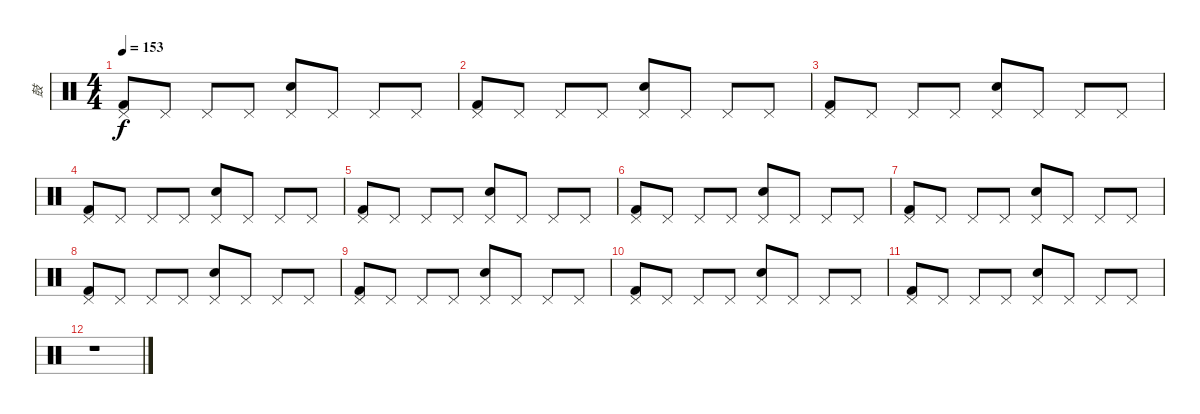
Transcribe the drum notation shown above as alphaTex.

\track ("鼓" "鼓") {instrument percussion}
\staff {score}
\articulation defaults
\ts (4 4)
\tempo 153
\clef neutral
\ks c
("Pedal Hi-Hat (hit)" "Kick (hit) 2").8{dy f} "Pedal Hi-Hat (hit)".8 "Pedal Hi-Hat (hit)".8 "Pedal Hi-Hat (hit)".8 ("Pedal Hi-Hat (hit)" "Electric Snare (hit)").8 "Pedal Hi-Hat (hit)".8 "Pedal Hi-Hat (hit)".8 "Pedal Hi-Hat (hit)".8 |
("Pedal Hi-Hat (hit)" "Kick (hit) 2").8 "Pedal Hi-Hat (hit)".8 "Pedal Hi-Hat (hit)".8 "Pedal Hi-Hat (hit)".8 ("Pedal Hi-Hat (hit)" "Electric Snare (hit)").8 "Pedal Hi-Hat (hit)".8 "Pedal Hi-Hat (hit)".8 "Pedal Hi-Hat (hit)".8 |
("Pedal Hi-Hat (hit)" "Kick (hit) 2").8 "Pedal Hi-Hat (hit)".8 "Pedal Hi-Hat (hit)".8 "Pedal Hi-Hat (hit)".8 ("Pedal Hi-Hat (hit)" "Electric Snare (hit)").8 "Pedal Hi-Hat (hit)".8 "Pedal Hi-Hat (hit)".8 "Pedal Hi-Hat (hit)".8 |
("Pedal Hi-Hat (hit)" "Kick (hit) 2").8 "Pedal Hi-Hat (hit)".8 "Pedal Hi-Hat (hit)".8 "Pedal Hi-Hat (hit)".8 ("Pedal Hi-Hat (hit)" "Electric Snare (hit)").8 "Pedal Hi-Hat (hit)".8 "Pedal Hi-Hat (hit)".8 "Pedal Hi-Hat (hit)".8 |
("Pedal Hi-Hat (hit)" "Kick (hit) 2").8 "Pedal Hi-Hat (hit)".8 "Pedal Hi-Hat (hit)".8 "Pedal Hi-Hat (hit)".8 ("Pedal Hi-Hat (hit)" "Electric Snare (hit)").8 "Pedal Hi-Hat (hit)".8 "Pedal Hi-Hat (hit)".8 "Pedal Hi-Hat (hit)".8 |
("Pedal Hi-Hat (hit)" "Kick (hit) 2").8 "Pedal Hi-Hat (hit)".8 "Pedal Hi-Hat (hit)".8 "Pedal Hi-Hat (hit)".8 ("Pedal Hi-Hat (hit)" "Electric Snare (hit)").8 "Pedal Hi-Hat (hit)".8 "Pedal Hi-Hat (hit)".8 "Pedal Hi-Hat (hit)".8 |
("Pedal Hi-Hat (hit)" "Kick (hit) 2").8 "Pedal Hi-Hat (hit)".8 "Pedal Hi-Hat (hit)".8 "Pedal Hi-Hat (hit)".8 ("Pedal Hi-Hat (hit)" "Electric Snare (hit)").8 "Pedal Hi-Hat (hit)".8 "Pedal Hi-Hat (hit)".8 "Pedal Hi-Hat (hit)".8 |
("Pedal Hi-Hat (hit)" "Kick (hit) 2").8 "Pedal Hi-Hat (hit)".8 "Pedal Hi-Hat (hit)".8 "Pedal Hi-Hat (hit)".8 ("Pedal Hi-Hat (hit)" "Electric Snare (hit)").8 "Pedal Hi-Hat (hit)".8 "Pedal Hi-Hat (hit)".8 "Pedal Hi-Hat (hit)".8 |
("Pedal Hi-Hat (hit)" "Kick (hit) 2").8 "Pedal Hi-Hat (hit)".8 "Pedal Hi-Hat (hit)".8 "Pedal Hi-Hat (hit)".8 ("Pedal Hi-Hat (hit)" "Electric Snare (hit)").8 "Pedal Hi-Hat (hit)".8 "Pedal Hi-Hat (hit)".8 "Pedal Hi-Hat (hit)".8 |
("Pedal Hi-Hat (hit)" "Kick (hit) 2").8 "Pedal Hi-Hat (hit)".8 "Pedal Hi-Hat (hit)".8 "Pedal Hi-Hat (hit)".8 ("Pedal Hi-Hat (hit)" "Electric Snare (hit)").8 "Pedal Hi-Hat (hit)".8 "Pedal Hi-Hat (hit)".8 "Pedal Hi-Hat (hit)".8 |
("Pedal Hi-Hat (hit)" "Kick (hit) 2").8 "Pedal Hi-Hat (hit)".8 "Pedal Hi-Hat (hit)".8 "Pedal Hi-Hat (hit)".8 ("Pedal Hi-Hat (hit)" "Electric Snare (hit)").8 "Pedal Hi-Hat (hit)".8 "Pedal Hi-Hat (hit)".8 "Pedal Hi-Hat (hit)".8 |
r.1
